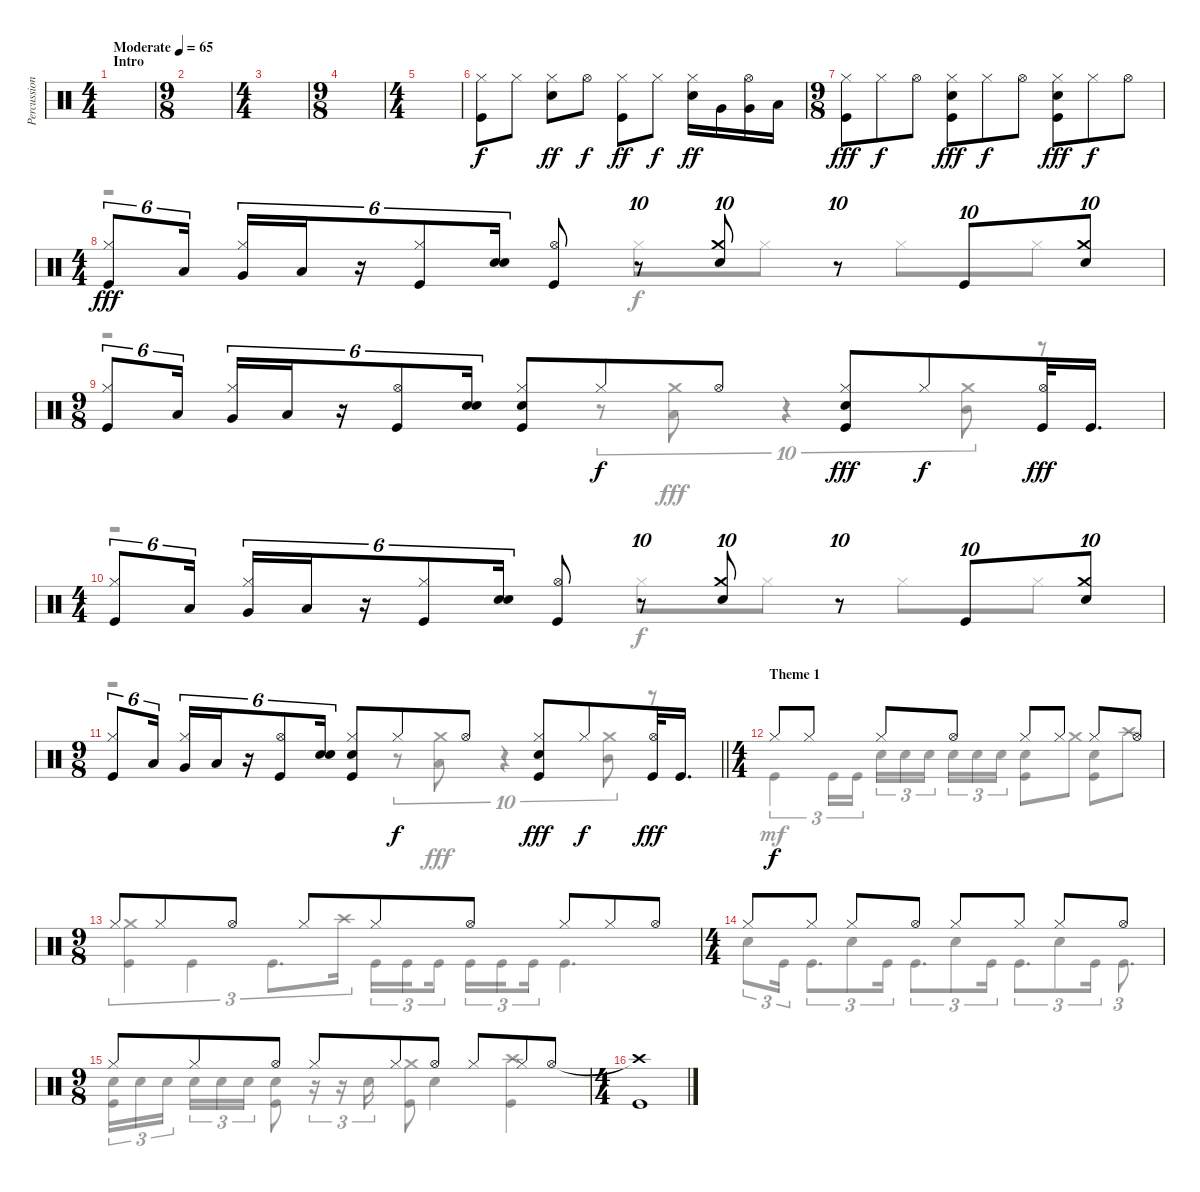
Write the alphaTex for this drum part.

\track ("Percussion" "Percussion") {instrument percussion}
\staff {score}
\articulation defaults
\voice
\ts (4 4)
\section ("" "Intro")
\tempo (65 "Moderate")
\clef neutral
\ks c
|
\ts (9 8)
|
\ts (4 4)
|
\ts (9 8)
|
\ts (4 4)
|
("Hi-Hat (closed)" "Kick (hit)").8{balance 16} "Hi-Hat (closed)".8{dy f} ("Hi-Hat (closed)" "Snare (hit) 2").8{dy ff} "Hi-Hat (open)".8{dy f} ("Hi-Hat (closed)" "Kick (hit)").8{dy ff} "Hi-Hat (closed)".8{dy f} ("Hi-Hat (closed)" "Snare (hit) 2").16{dy ff} "Very Low Tom (hit)".16 ("Hi-Hat (open)" "Very Low Tom (hit)").16 "Low Floor Tom (hit)".16 |
\ts (9 8)
("Hi-Hat (closed)" "Kick (hit)").8{dy fff} "Hi-Hat (closed)".8{dy f} "Hi-Hat (open)".8 ("Hi-Hat (closed)" "Snare (hit) 2" "Kick (hit)").8{dy fff} "Hi-Hat (closed)".8{dy f} "Hi-Hat (open)".8 ("Hi-Hat (closed)" "Snare (hit) 2" "Kick (hit)").8{dy fff} "Hi-Hat (closed)".8{dy f} "Hi-Hat (open)".8 |
\ts (4 4)
("Hi-Hat (closed)" "Kick (hit)").8{tu (6 4) dy fff} "Low Tom (hit)".16{tu (6 4) beam splitsecondary} ("Hi-Hat (closed)" "Very Low Tom (hit)").16{tu (6 4)} "Low Floor Tom (hit)".16{tu (6 4)} r.16{tu (6 4)} ("Hi-Hat (closed)" "Kick (hit)").8{tu (6 4)} ("Snare (hit) 2" "Snare (hit) 2").16{tu (6 4)} ("Hi-Hat (open)" "Kick (hit)").8 r.8{tu (10 8)} ("Crash medium (hit)" "Snare (hit) 2").8{tu (10 8)} r.8{tu (10 8)} "Kick (hit)".8{tu (10 8)} ("Crash medium (hit)" "Snare (hit) 2").8{tu (10 8)} |
\ts (9 8)
("Hi-Hat (closed)" "Kick (hit)").8{tu (6 4)} "Low Tom (hit)".16{tu (6 4) beam splitsecondary} ("Hi-Hat (closed)" "Very Low Tom (hit)").16{tu (6 4)} "Low Floor Tom (hit)".16{tu (6 4)} r.16{tu (6 4)} ("Hi-Hat (open)" "Kick (hit)").8{tu (6 4)} ("Snare (hit) 2" "Snare (hit) 2").16{tu (6 4)} ("Hi-Hat (closed)" "Snare (hit) 2" "Kick (hit)").8 "Hi-Hat (closed)".8{dy f} "Hi-Hat (open)".8 ("Hi-Hat (closed)" "Snare (hit) 2" "Kick (hit)").8{dy fff} "Hi-Hat (closed)".8{dy f} ("Hi-Hat (open)" "Kick (hit)").32{dy fff} "Kick (hit)".16{d} |
\ts (4 4)
("Hi-Hat (closed)" "Kick (hit)").8{tu (6 4)} "Low Tom (hit)".16{tu (6 4) beam splitsecondary} ("Hi-Hat (closed)" "Very Low Tom (hit)").16{tu (6 4)} "Low Floor Tom (hit)".16{tu (6 4)} r.16{tu (6 4)} ("Hi-Hat (closed)" "Kick (hit)").8{tu (6 4)} ("Snare (hit) 2" "Snare (hit) 2").16{tu (6 4)} ("Hi-Hat (open)" "Kick (hit)").8 r.8{tu (10 8)} ("Crash medium (hit)" "Snare (hit) 2").8{tu (10 8)} r.8{tu (10 8)} "Kick (hit)".8{tu (10 8)} ("Crash medium (hit)" "Snare (hit) 2").8{tu (10 8)} |
\ts (9 8)
\barLineRight lightlight
("Hi-Hat (closed)" "Kick (hit)").8{tu (6 4)} "Low Tom (hit)".16{tu (6 4) beam splitsecondary} ("Hi-Hat (closed)" "Very Low Tom (hit)").16{tu (6 4)} "Low Floor Tom (hit)".16{tu (6 4)} r.16{tu (6 4)} ("Hi-Hat (open)" "Kick (hit)").8{tu (6 4)} ("Snare (hit) 2" "Snare (hit) 2").16{tu (6 4)} ("Hi-Hat (closed)" "Snare (hit) 2" "Kick (hit)").8 "Hi-Hat (closed)".8{dy f} "Hi-Hat (open)".8 ("Hi-Hat (closed)" "Snare (hit) 2" "Kick (hit)").8{dy fff} "Hi-Hat (closed)".8{dy f} ("Hi-Hat (open)" "Kick (hit)").32{dy fff} "Kick (hit)".16{d} |
\ts (4 4)
\section ("" "Theme 1")
"Hi-Hat (closed)".8{dy f balance 8} "Hi-Hat (closed)".8 "Hi-Hat (closed)".8 "Hi-Hat (open)".8 "Hi-Hat (closed)".8 "Hi-Hat (closed)".8 "Hi-Hat (closed)".8 "Hi-Hat (open)".8 |
\ts (9 8)
"Hi-Hat (closed)".8 "Hi-Hat (closed)".8 "Hi-Hat (open)".8 "Hi-Hat (closed)".8 "Hi-Hat (closed)".8 "Hi-Hat (open)".8 "Hi-Hat (closed)".8 "Hi-Hat (closed)".8 "Hi-Hat (open)".8 |
\ts (4 4)
"Hi-Hat (closed)".8 "Hi-Hat (closed)".8 "Hi-Hat (closed)".8 "Hi-Hat (open)".8 "Hi-Hat (closed)".8 "Hi-Hat (closed)".8 "Hi-Hat (closed)".8 "Hi-Hat (open)".8 |
\ts (9 8)
"Hi-Hat (closed)".8 "Hi-Hat (closed)".8 "Hi-Hat (open)".8 "Hi-Hat (closed)".8 "Hi-Hat (closed)".8 "Hi-Hat (open)".8 "Hi-Hat (closed)".8 "Hi-Hat (closed)".8 "Hi-Hat (open)".8 |
\ts (4 4)
("Crash high (hit)"{t} "Kick (hit)").1
\voice
\clef neutral
\ottava regular
\simile none
\ks c
|
|
|
|
|
|
|
r.2 "Hi-Hat (closed)".8 "Hi-Hat (closed)".8 "Hi-Hat (closed)".8 "Hi-Hat (closed)".8 |
r.2 r.8{tu (10 8)} ("Crash medium (hit)" "Low Tom (hit)").8{tu (10 8) dy fff} r.4{tu (10 8)} ("Crash medium (hit)" "Mid Tom (hit)").8{tu (10 8)} r.8 |
r.2 "Hi-Hat (closed)".8{dy f} "Hi-Hat (closed)".8 "Hi-Hat (closed)".8 "Hi-Hat (closed)".8 |
\barLineRight lightlight
r.2 r.8{tu (10 8)} ("Crash medium (hit)" "Low Tom (hit)").8{tu (10 8) dy fff} r.4{tu (10 8)} ("Crash medium (hit)" "Mid Tom (hit)").8{tu (10 8)} r.8 |
"Kick (hit)".4{tu (3 2) dy mf} "Kick (hit)".16{tu (3 2)} "Kick (hit)".16{tu (3 2)} "Snare (hit) 2".16{tu (3 2)} "Snare (hit) 2".16{tu (3 2)} "Snare (hit) 2".16{tu (3 2) beam splitsecondary} "Snare (hit) 2".16{tu (3 2)} "Snare (hit) 2".16{tu (3 2)} "Snare (hit) 2".16{tu (3 2)} ("Snare (hit) 2" "Kick (hit)").8 "Crash medium (hit)".8 ("Snare (hit) 2" "Kick (hit)").8 "Crash high (hit)".8 |
("Crash medium (hit)" "Kick (hit)").4{tu (3 2)} "Kick (hit)".4{tu (3 2)} "Kick (hit)".8{d tu (3 2)} "Crash high (hit)".16{tu (3 2)} "Kick (hit)".16{tu (3 2)} "Kick (hit)".16{tu (3 2) beam splitsecondary} "Kick (hit)".16{tu (3 2)} "Kick (hit)".16{tu (3 2)} "Kick (hit)".16{tu (3 2) beam splitsecondary} "Kick (hit)".16{tu (3 2)} "Kick (hit)".4{d} |
"Snare (hit) 2".8{tu (3 2)} "Kick (hit)".16{tu (3 2)} "Kick (hit)".8{d tu (3 2)} "Snare (hit) 2".8{tu (3 2)} "Kick (hit)".16{tu (3 2)} "Kick (hit)".8{d tu (3 2)} "Snare (hit) 2".8{tu (3 2)} "Kick (hit)".16{tu (3 2)} "Kick (hit)".8{d tu (3 2)} "Snare (hit) 2".8{tu (3 2)} "Kick (hit)".16{tu (3 2)} "Kick (hit)".8{d tu (3 2)} |
("Snare (hit) 2" "Kick (hit)").16{tu (3 2)} "Snare (hit) 2".16{tu (3 2)} "Snare (hit) 2".16{tu (3 2) beam splitsecondary} "Snare (hit) 2".16{tu (3 2)} "Snare (hit) 2".16{tu (3 2)} "Snare (hit) 2".16{tu (3 2)} ("Snare (hit) 2" "Kick (hit)").8 r.16{tu (3 2)} r.16{tu (3 2)} "Snare (hit) 2".16{tu (3 2)} ("Crash medium (hit)" "Kick (hit)").8 "Snare (hit) 2".4 ("Crash high (hit)" "Kick (hit)").4 |
